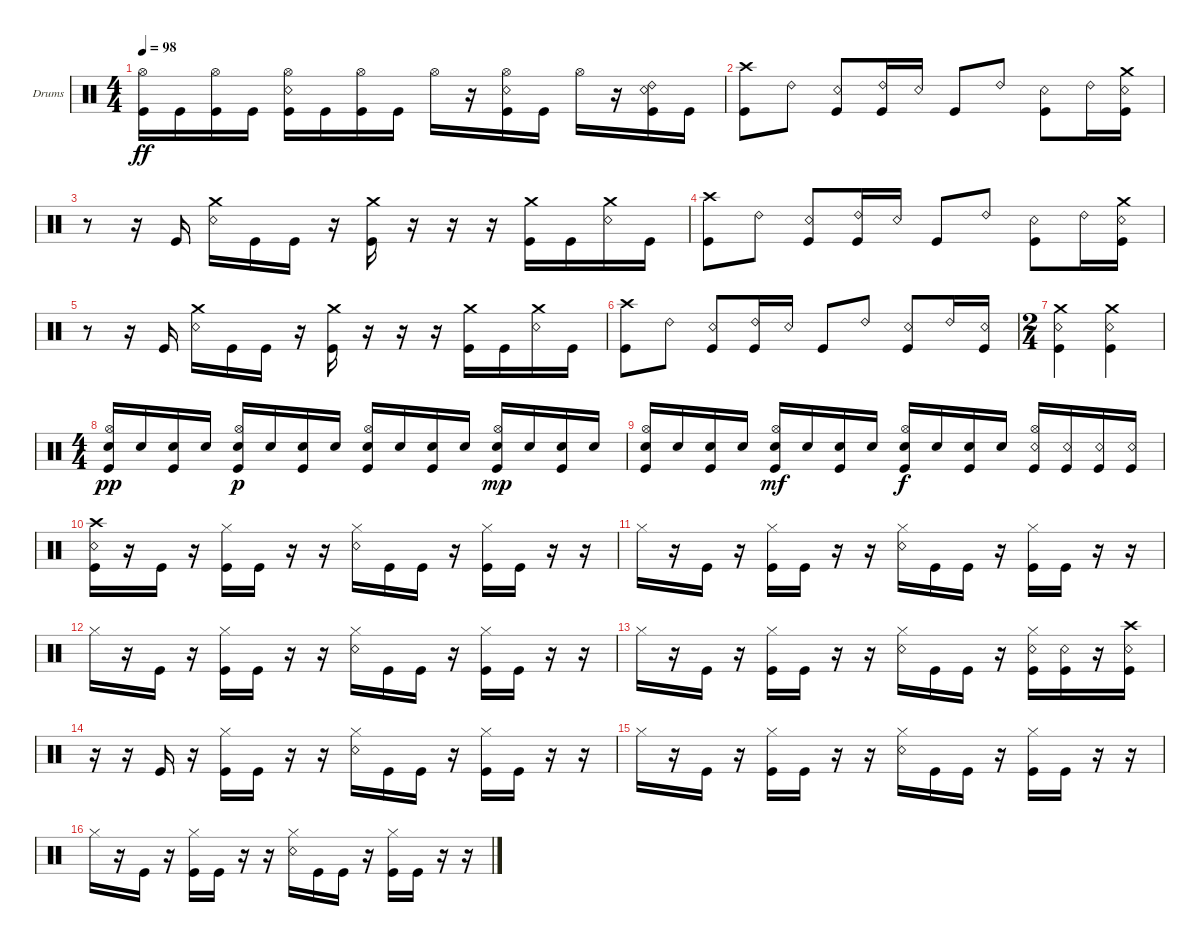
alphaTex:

\bracketExtendMode groupsimilarinstruments
\firstSystemTrackNameOrientation horizontal
\otherSystemsTrackNameOrientation horizontal
\track ("Drumkit" "Drums") {instrument percussion}
\staff {score}
\articulation defaults
\ts (4 4)
\tempo 98
\clef neutral
\ks c
("Kick (hit)" "Hi-Hat (open)").16{dy ff} "Kick (hit)".16 ("Kick (hit)" "Hi-Hat (open)").16 "Kick (hit)".16 ("Kick (hit)" "Hi-Hat (open)" "Snare (rim shot)").16 "Kick (hit)".16 ("Kick (hit)" "Hi-Hat (open)").16 "Kick (hit)".16 "Hi-Hat (open)".16 r.16 ("Kick (hit)" "Hi-Hat (open)" "Snare (rim shot)").16 "Kick (hit)".16 "Hi-Hat (open)".16 r.16 ("Kick (hit)" "Snare (rim shot)" "Ride (bell) 2").16 "Kick (hit)".16 |
("Kick (hit)" "Crash high (hit)").8 "Ride (bell) 2".8 ("Snare (rim shot)" "Kick (hit)").8 ("Ride (bell) 2" "Kick (hit)").16 "Snare (rim shot)".16 "Kick (hit)".8 "Ride (bell) 2".8 ("Snare (rim shot)" "Kick (hit)").8 "Ride (bell) 2".16 ("Snare (rim shot)" "Kick (hit)" "Crash medium (hit)").16 |
r.8 r.16 "Kick (hit)".16 ("Crash medium (hit)" "Snare (rim shot)").16 "Kick (hit)".16 "Kick (hit)".16 r.16 ("Crash medium (hit)" "Kick (hit)").16 r.16 r.16 r.16 ("Kick (hit)" "Crash medium (hit)").16 "Kick (hit)".16 ("Snare (rim shot)" "Crash medium (hit)").16 "Kick (hit)".16 |
("Kick (hit)" "Crash high (hit)").8 "Ride (bell) 2".8 ("Snare (rim shot)" "Kick (hit)").8 ("Ride (bell) 2" "Kick (hit)").16 "Snare (rim shot)".16 "Kick (hit)".8 "Ride (bell) 2".8 ("Snare (rim shot)" "Kick (hit)").8 "Ride (bell) 2".16 ("Snare (rim shot)" "Kick (hit)" "Crash medium (hit)").16 |
r.8 r.16 "Kick (hit)".16 ("Crash medium (hit)" "Snare (rim shot)").16 "Kick (hit)".16 "Kick (hit)".16 r.16 ("Crash medium (hit)" "Kick (hit)").16 r.16 r.16 r.16 ("Kick (hit)" "Crash medium (hit)").16 "Kick (hit)".16 ("Snare (rim shot)" "Crash medium (hit)").16 "Kick (hit)".16 |
("Kick (hit)" "Crash high (hit)").8 "Ride (bell) 2".8 ("Snare (rim shot)" "Kick (hit)").8 ("Ride (bell) 2" "Kick (hit)").16 "Snare (rim shot)".16 "Kick (hit)".8 "Ride (bell) 2".8 ("Snare (rim shot)" "Kick (hit)").8 "Ride (bell) 2".16 ("Snare (rim shot)" "Kick (hit)").16 |
\ts (2 4)
("Snare (rim shot)" "Crash medium (hit)" "Kick (hit)").4 ("Crash medium (hit)" "Snare (rim shot)" "Kick (hit)").4 |
\ts (4 4)
("Snare (hit) 2" "Hi-Hat (open)" "Kick (hit)").16{dy pp} "Snare (hit) 2".16 ("Snare (hit) 2" "Kick (hit)").16 "Snare (hit) 2".16 ("Snare (hit) 2" "Hi-Hat (open)" "Kick (hit)").16{dy p} "Snare (hit) 2".16 ("Snare (hit) 2" "Kick (hit)").16 "Snare (hit) 2".16 ("Snare (hit) 2" "Hi-Hat (open)" "Kick (hit)").16 "Snare (hit) 2".16 ("Snare (hit) 2" "Kick (hit)").16 "Snare (hit) 2".16 ("Snare (hit) 2" "Hi-Hat (open)" "Kick (hit)").16{dy mp} "Snare (hit) 2".16 ("Snare (hit) 2" "Kick (hit)").16 "Snare (hit) 2".16 |
("Snare (hit) 2" "Hi-Hat (open)" "Kick (hit)").16 "Snare (hit) 2".16 ("Snare (hit) 2" "Kick (hit)").16 "Snare (hit) 2".16 ("Snare (hit) 2" "Hi-Hat (open)" "Kick (hit)").16{dy mf} "Snare (hit) 2".16 ("Snare (hit) 2" "Kick (hit)").16 "Snare (hit) 2".16 ("Snare (hit) 2" "Hi-Hat (open)" "Kick (hit)").16{dy f} "Snare (hit) 2".16 ("Snare (hit) 2" "Kick (hit)").16 "Snare (hit) 2".16 ("Snare (rim shot)" "Hi-Hat (open)" "Kick (hit)").16 ("Snare (rim shot)" "Kick (hit)").16 ("Snare (rim shot)" "Kick (hit)").16 ("Snare (rim shot)" "Kick (hit)").16 |
("Crash high (hit)" "Snare (rim shot)" "Kick (hit)").16 r.16 "Kick (hit)".16 r.16 ("Kick (hit)" "Hi-Hat (closed)").16 "Kick (hit)".16 r.16 r.16 ("Hi-Hat (closed)" "Snare (rim shot)").16 "Kick (hit)".16 "Kick (hit)".16 r.16 ("Kick (hit)" "Hi-Hat (closed)").16 "Kick (hit)".16 r.16 r.16 |
"Hi-Hat (closed)".16 r.16 "Kick (hit)".16 r.16 ("Kick (hit)" "Hi-Hat (closed)").16 "Kick (hit)".16 r.16 r.16 ("Hi-Hat (closed)" "Snare (rim shot)").16 "Kick (hit)".16 "Kick (hit)".16 r.16 ("Kick (hit)" "Hi-Hat (closed)").16 "Kick (hit)".16 r.16 r.16 |
"Hi-Hat (closed)".16 r.16 "Kick (hit)".16 r.16 ("Kick (hit)" "Hi-Hat (closed)").16 "Kick (hit)".16 r.16 r.16 ("Hi-Hat (closed)" "Snare (rim shot)").16 "Kick (hit)".16 "Kick (hit)".16 r.16 ("Kick (hit)" "Hi-Hat (closed)").16 "Kick (hit)".16 r.16 r.16 |
"Hi-Hat (closed)".16 r.16 "Kick (hit)".16 r.16 ("Kick (hit)" "Hi-Hat (closed)").16 "Kick (hit)".16 r.16 r.16 ("Hi-Hat (closed)" "Snare (rim shot)").16 "Kick (hit)".16 "Kick (hit)".16 r.16 ("Kick (hit)" "Hi-Hat (closed)" "Snare (rim shot)").16 ("Kick (hit)" "Snare (rim shot)").16 r.16 ("Crash high (hit)" "Snare (rim shot)" "Kick (hit)").16 |
r.16 r.16 "Kick (hit)".16 r.16 ("Kick (hit)" "Hi-Hat (closed)").16 "Kick (hit)".16 r.16 r.16 ("Hi-Hat (closed)" "Snare (rim shot)").16 "Kick (hit)".16 "Kick (hit)".16 r.16 ("Kick (hit)" "Hi-Hat (closed)").16 "Kick (hit)".16 r.16 r.16 |
"Hi-Hat (closed)".16 r.16 "Kick (hit)".16 r.16 ("Kick (hit)" "Hi-Hat (closed)").16 "Kick (hit)".16 r.16 r.16 ("Hi-Hat (closed)" "Snare (rim shot)").16 "Kick (hit)".16 "Kick (hit)".16 r.16 ("Kick (hit)" "Hi-Hat (closed)").16 "Kick (hit)".16 r.16 r.16 |
"Hi-Hat (closed)".16 r.16 "Kick (hit)".16 r.16 ("Kick (hit)" "Hi-Hat (closed)").16 "Kick (hit)".16 r.16 r.16 ("Hi-Hat (closed)" "Snare (rim shot)").16 "Kick (hit)".16 "Kick (hit)".16 r.16 ("Kick (hit)" "Hi-Hat (closed)").16 "Kick (hit)".16 r.16 r.16
